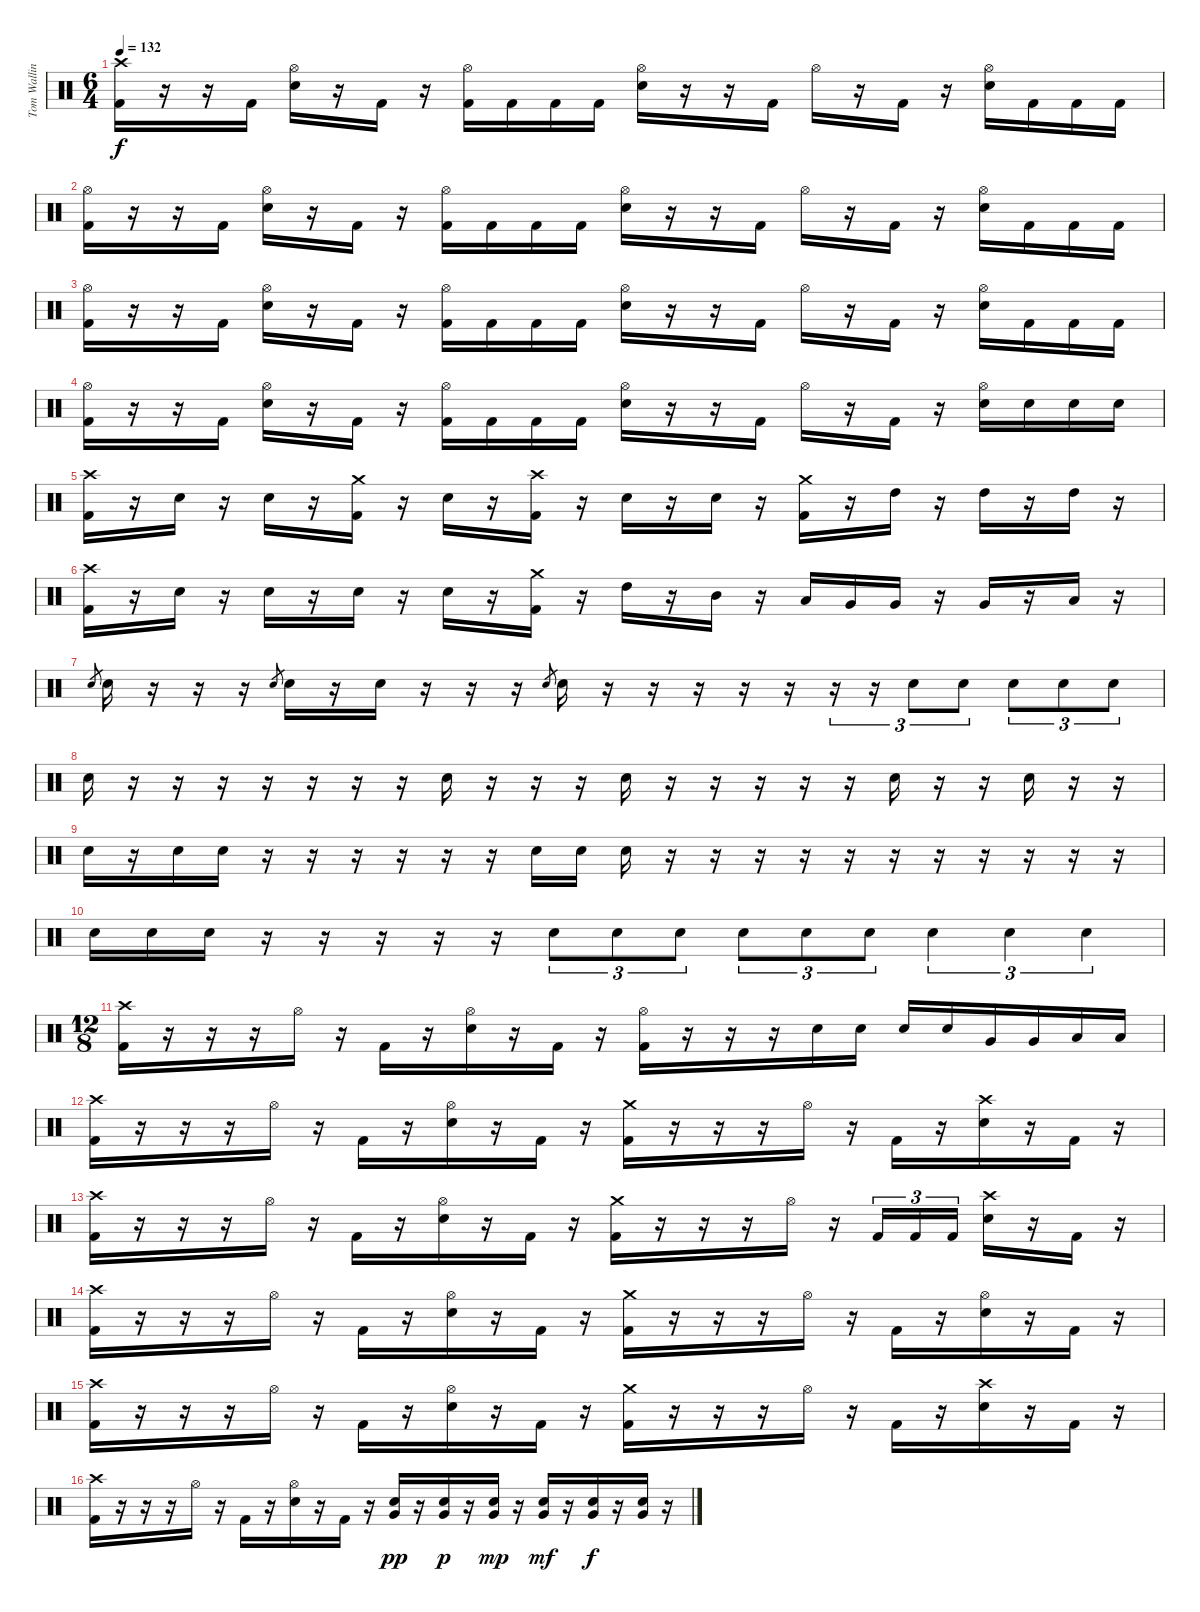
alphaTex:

\track ("Tom Walling [Drums]" "Tom Wallin") {instrument percussion}
\staff {score}
\articulation defaults
\ts (6 4)
\tempo 132
\clef neutral
\ks c
("Crash high (hit)" "Kick (hit) 2").16{dy f} r.16 r.16 "Kick (hit) 2".16 ("Hi-Hat (open)" "Electric Snare (hit)").16 r.16 "Kick (hit) 2".16 r.16 ("Hi-Hat (open)" "Kick (hit) 2").16 "Kick (hit) 2".16 "Kick (hit) 2".16 "Kick (hit) 2".16 ("Hi-Hat (open)" "Electric Snare (hit)").16 r.16 r.16 "Kick (hit) 2".16 "Hi-Hat (open)".16 r.16 "Kick (hit) 2".16 r.16 ("Hi-Hat (open)" "Electric Snare (hit)").16 "Kick (hit) 2".16 "Kick (hit) 2".16 "Kick (hit) 2".16 |
("Hi-Hat (open)" "Kick (hit) 2").16 r.16 r.16 "Kick (hit) 2".16 ("Hi-Hat (open)" "Electric Snare (hit)").16 r.16 "Kick (hit) 2".16 r.16 ("Hi-Hat (open)" "Kick (hit) 2").16 "Kick (hit) 2".16 "Kick (hit) 2".16 "Kick (hit) 2".16 ("Hi-Hat (open)" "Electric Snare (hit)").16 r.16 r.16 "Kick (hit) 2".16 "Hi-Hat (open)".16 r.16 "Kick (hit) 2".16 r.16 ("Hi-Hat (open)" "Electric Snare (hit)").16 "Kick (hit) 2".16 "Kick (hit) 2".16 "Kick (hit) 2".16 |
("Hi-Hat (open)" "Kick (hit) 2").16 r.16 r.16 "Kick (hit) 2".16 ("Hi-Hat (open)" "Electric Snare (hit)").16 r.16 "Kick (hit) 2".16 r.16 ("Hi-Hat (open)" "Kick (hit) 2").16 "Kick (hit) 2".16 "Kick (hit) 2".16 "Kick (hit) 2".16 ("Hi-Hat (open)" "Electric Snare (hit)").16 r.16 r.16 "Kick (hit) 2".16 "Hi-Hat (open)".16 r.16 "Kick (hit) 2".16 r.16 ("Hi-Hat (open)" "Electric Snare (hit)").16 "Kick (hit) 2".16 "Kick (hit) 2".16 "Kick (hit) 2".16 |
("Hi-Hat (open)" "Kick (hit) 2").16 r.16 r.16 "Kick (hit) 2".16 ("Hi-Hat (open)" "Electric Snare (hit)").16 r.16 "Kick (hit) 2".16 r.16 ("Hi-Hat (open)" "Kick (hit) 2").16 "Kick (hit) 2".16 "Kick (hit) 2".16 "Kick (hit) 2".16 ("Hi-Hat (open)" "Electric Snare (hit)").16 r.16 r.16 "Kick (hit) 2".16 "Hi-Hat (open)".16 r.16 "Kick (hit) 2".16 r.16 ("Hi-Hat (open)" "Electric Snare (hit)").16 "Electric Snare (hit)".16 "Electric Snare (hit)".16 "Electric Snare (hit)".16 |
("Crash high (hit)" "Kick (hit) 2").16 r.16 "Electric Snare (hit)".16 r.16 "Electric Snare (hit)".16 r.16 ("Crash medium (hit)" "Kick (hit) 2").16 r.16 "Electric Snare (hit)".16 r.16 ("Crash high (hit)" "Kick (hit) 2").16 r.16 "Electric Snare (hit)".16 r.16 "Electric Snare (hit)".16 r.16 ("Crash medium (hit)" "Kick (hit) 2").16 r.16 "High Tom (hit)".16 r.16 "High Tom (hit)".16 r.16 "High Tom (hit)".16 r.16 |
("Crash high (hit)" "Kick (hit) 2").16 r.16 "Electric Snare (hit)".16 r.16 "Electric Snare (hit)".16 r.16 "Electric Snare (hit)".16 r.16 "Electric Snare (hit)".16 r.16 ("Crash medium (hit)" "Kick (hit) 2").16 r.16 "High Tom (hit)".16 r.16 "Mid Tom (hit)".16 r.16 "Low Tom (hit)".16 "Very Low Tom (hit)".16 "Very Low Tom (hit)".16 r.16 "Very Low Tom (hit)".16 r.16 "Low Floor Tom (hit)".16 r.16 |
"Electric Snare (hit)".8{gr} "Electric Snare (hit)".16 r.16 r.16 r.16 "Electric Snare (hit)".8{gr} "Electric Snare (hit)".16 r.16 "Electric Snare (hit)".16 r.16 r.16 r.16 "Electric Snare (hit)".8{gr} "Electric Snare (hit)".16 r.16 r.16 r.16 r.16 r.16 r.16{tu (3 2)} r.16{tu (3 2)} "Electric Snare (hit)".8{tu (3 2)} "Electric Snare (hit)".8{tu (3 2)} "Electric Snare (hit)".8{tu (3 2)} "Electric Snare (hit)".8{tu (3 2)} "Electric Snare (hit)".8{tu (3 2)} |
"Electric Snare (hit)".16 r.16 r.16 r.16 r.16 r.16 r.16 r.16 "Electric Snare (hit)".16 r.16 r.16 r.16 "Electric Snare (hit)".16 r.16 r.16 r.16 r.16 r.16 "Electric Snare (hit)".16 r.16 r.16 "Electric Snare (hit)".16 r.16 r.16 |
"Electric Snare (hit)".16 r.16 "Electric Snare (hit)".16 "Electric Snare (hit)".16 r.16 r.16 r.16 r.16 r.16 r.16 "Electric Snare (hit)".16 "Electric Snare (hit)".16 "Electric Snare (hit)".16 r.16 r.16 r.16 r.16 r.16 r.16 r.16 r.16 r.16 r.16 r.16 |
"Electric Snare (hit)".16 "Electric Snare (hit)".16 "Electric Snare (hit)".16 r.16 r.16 r.16 r.16 r.16 "Electric Snare (hit)".8{tu (3 2)} "Electric Snare (hit)".8{tu (3 2)} "Electric Snare (hit)".8{tu (3 2)} "Electric Snare (hit)".8{tu (3 2)} "Electric Snare (hit)".8{tu (3 2)} "Electric Snare (hit)".8{tu (3 2)} "Electric Snare (hit)".4{tu (3 2)} "Electric Snare (hit)".4{tu (3 2)} "Electric Snare (hit)".4{tu (3 2)} |
\ts (12 8)
("Crash high (hit)" "Kick (hit) 2").16 r.16 r.16 r.16 "Hi-Hat (open)".16 r.16 "Kick (hit) 2".16 r.16 ("Hi-Hat (open)" "Electric Snare (hit)").16 r.16 "Kick (hit) 2".16 r.16 ("Hi-Hat (open)" "Kick (hit) 2").16 r.16 r.16 r.16 "Electric Snare (hit)".16 "Electric Snare (hit)".16 "Electric Snare (hit)".16 "Electric Snare (hit)".16 "Very Low Tom (hit)".16 "Very Low Tom (hit)".16 "Low Floor Tom (hit)".16 "Low Floor Tom (hit)".16 |
("Crash high (hit)" "Kick (hit) 2").16 r.16 r.16 r.16 "Hi-Hat (open)".16 r.16 "Kick (hit) 2".16 r.16 ("Hi-Hat (open)" "Electric Snare (hit)").16 r.16 "Kick (hit) 2".16 r.16 ("Crash medium (hit)" "Kick (hit) 2").16 r.16 r.16 r.16 "Hi-Hat (open)".16 r.16 "Kick (hit) 2".16 r.16 ("Crash high (hit)" "Electric Snare (hit)").16 r.16 "Kick (hit) 2".16 r.16 |
("Crash high (hit)" "Kick (hit) 2").16 r.16 r.16 r.16 "Hi-Hat (open)".16 r.16 "Kick (hit) 2".16 r.16 ("Hi-Hat (open)" "Electric Snare (hit)").16 r.16 "Kick (hit) 2".16 r.16 ("Crash medium (hit)" "Kick (hit) 2").16 r.16 r.16 r.16 "Hi-Hat (open)".16 r.16 "Kick (hit) 2".16{tu (3 2)} "Kick (hit) 2".16{tu (3 2)} "Kick (hit) 2".16{tu (3 2)} ("Crash high (hit)" "Electric Snare (hit)").16 r.16 "Kick (hit) 2".16 r.16 |
("Crash high (hit)" "Kick (hit) 2").16 r.16 r.16 r.16 "Hi-Hat (open)".16 r.16 "Kick (hit) 2".16 r.16 ("Hi-Hat (open)" "Electric Snare (hit)").16 r.16 "Kick (hit) 2".16 r.16 ("Crash medium (hit)" "Kick (hit) 2").16 r.16 r.16 r.16 "Hi-Hat (open)".16 r.16 "Kick (hit) 2".16 r.16 ("Hi-Hat (open)" "Electric Snare (hit)").16 r.16 "Kick (hit) 2".16 r.16 |
("Crash high (hit)" "Kick (hit) 2").16 r.16 r.16 r.16 "Hi-Hat (open)".16 r.16 "Kick (hit) 2".16 r.16 ("Hi-Hat (open)" "Electric Snare (hit)").16 r.16 "Kick (hit) 2".16 r.16 ("Crash medium (hit)" "Kick (hit) 2").16 r.16 r.16 r.16 "Hi-Hat (open)".16 r.16 "Kick (hit) 2".16 r.16 ("Crash high (hit)" "Electric Snare (hit)").16 r.16 "Kick (hit) 2".16 r.16 |
("Crash high (hit)" "Kick (hit) 2").16 r.16 r.16 r.16 "Hi-Hat (open)".16 r.16 "Kick (hit) 2".16 r.16 ("Hi-Hat (open)" "Electric Snare (hit)").16 r.16 "Kick (hit) 2".16 r.16 ("Very Low Tom (hit)" "Electric Snare (hit)").16{dy pp} r.16 ("Very Low Tom (hit)" "Electric Snare (hit)").16{dy p} r.16 ("Very Low Tom (hit)" "Electric Snare (hit)").16{dy mp} r.16 ("Very Low Tom (hit)" "Electric Snare (hit)").16{dy mf} r.16 ("Very Low Tom (hit)" "Electric Snare (hit)").16{dy f} r.16 ("Very Low Tom (hit)" "Electric Snare (hit)").16 r.16
